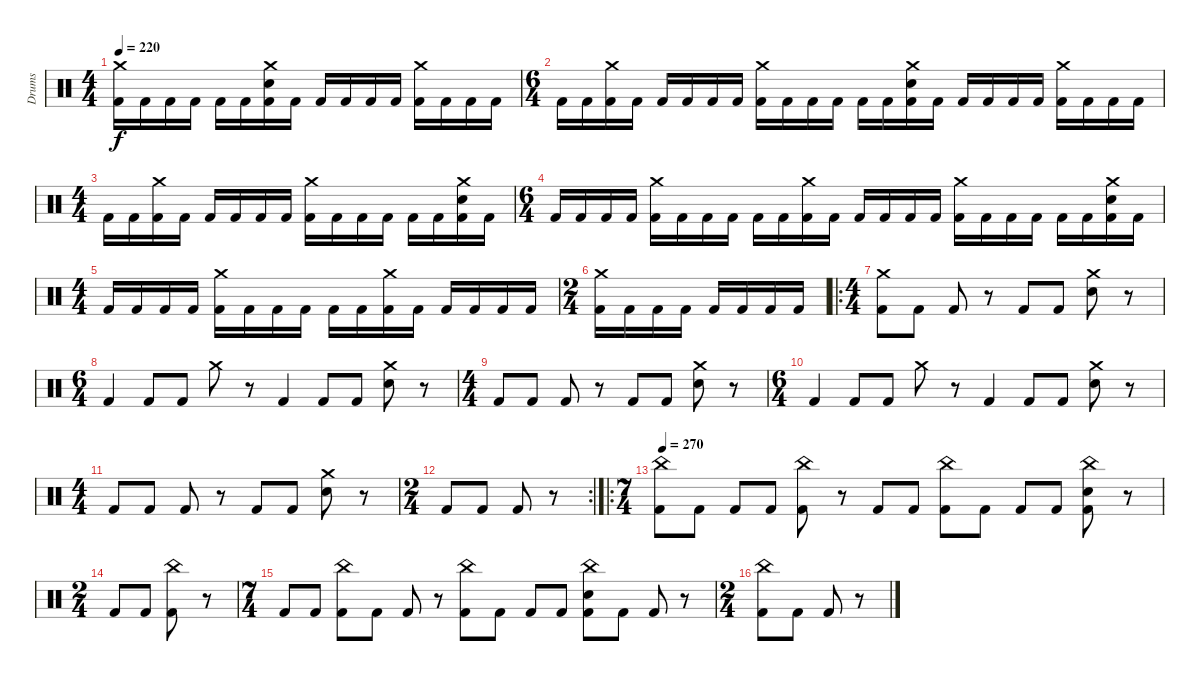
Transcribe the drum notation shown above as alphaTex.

\track ("Drums" "Drums") {instrument percussion}
\staff {score}
\articulation defaults
\ts (4 4)
\tempo 220
\clef neutral
\ks c
("Crash medium (hit)" "Kick (hit) 2").16{dy f} "Kick (hit) 2".16 "Kick (hit) 2".16 "Kick (hit) 2".16 "Kick (hit) 2".16 "Kick (hit) 2".16 ("Crash medium (hit)" "Electric Snare (hit)" "Kick (hit) 2").16 "Kick (hit) 2".16 "Kick (hit) 2".16 "Kick (hit) 2".16 "Kick (hit) 2".16 "Kick (hit) 2".16 ("Crash medium (hit)" "Kick (hit) 2").16 "Kick (hit) 2".16 "Kick (hit) 2".16 "Kick (hit) 2".16 |
\ts (6 4)
"Kick (hit) 2".16 "Kick (hit) 2".16 ("Crash medium (hit)" "Kick (hit) 2").16 "Kick (hit) 2".16 "Kick (hit) 2".16 "Kick (hit) 2".16 "Kick (hit) 2".16 "Kick (hit) 2".16 ("Crash medium (hit)" "Kick (hit) 2").16 "Kick (hit) 2".16 "Kick (hit) 2".16 "Kick (hit) 2".16 "Kick (hit) 2".16 "Kick (hit) 2".16 ("Crash medium (hit)" "Electric Snare (hit)" "Kick (hit) 2").16 "Kick (hit) 2".16 "Kick (hit) 2".16 "Kick (hit) 2".16 "Kick (hit) 2".16 "Kick (hit) 2".16 ("Crash medium (hit)" "Kick (hit) 2").16 "Kick (hit) 2".16 "Kick (hit) 2".16 "Kick (hit) 2".16 |
\ts (4 4)
"Kick (hit) 2".16 "Kick (hit) 2".16 ("Crash medium (hit)" "Kick (hit) 2").16 "Kick (hit) 2".16 "Kick (hit) 2".16 "Kick (hit) 2".16 "Kick (hit) 2".16 "Kick (hit) 2".16 ("Crash medium (hit)" "Kick (hit) 2").16 "Kick (hit) 2".16 "Kick (hit) 2".16 "Kick (hit) 2".16 "Kick (hit) 2".16 "Kick (hit) 2".16 ("Crash medium (hit)" "Electric Snare (hit)" "Kick (hit) 2").16 "Kick (hit) 2".16 |
\ts (6 4)
"Kick (hit) 2".16 "Kick (hit) 2".16 "Kick (hit) 2".16 "Kick (hit) 2".16 ("Crash medium (hit)" "Kick (hit) 2").16 "Kick (hit) 2".16 "Kick (hit) 2".16 "Kick (hit) 2".16 "Kick (hit) 2".16 "Kick (hit) 2".16 ("Crash medium (hit)" "Kick (hit) 2").16 "Kick (hit) 2".16 "Kick (hit) 2".16 "Kick (hit) 2".16 "Kick (hit) 2".16 "Kick (hit) 2".16 ("Crash medium (hit)" "Kick (hit) 2").16 "Kick (hit) 2".16 "Kick (hit) 2".16 "Kick (hit) 2".16 "Kick (hit) 2".16 "Kick (hit) 2".16 ("Crash medium (hit)" "Electric Snare (hit)" "Kick (hit) 2").16 "Kick (hit) 2".16 |
\ts (4 4)
"Kick (hit) 2".16 "Kick (hit) 2".16 "Kick (hit) 2".16 "Kick (hit) 2".16 ("Crash medium (hit)" "Kick (hit) 2").16 "Kick (hit) 2".16 "Kick (hit) 2".16 "Kick (hit) 2".16 "Kick (hit) 2".16 "Kick (hit) 2".16 ("Crash medium (hit)" "Kick (hit) 2").16 "Kick (hit) 2".16 "Kick (hit) 2".16 "Kick (hit) 2".16 "Kick (hit) 2".16 "Kick (hit) 2".16 |
\ts (2 4)
("Crash medium (hit)" "Kick (hit) 2").16 "Kick (hit) 2".16 "Kick (hit) 2".16 "Kick (hit) 2".16 "Kick (hit) 2".16 "Kick (hit) 2".16 "Kick (hit) 2".16 "Kick (hit) 2".16 |
\ro
\ts (4 4)
("Crash medium (hit)" "Kick (hit) 2").8 "Kick (hit) 2".8 "Kick (hit) 2".8 r.8 "Kick (hit) 2".8 "Kick (hit) 2".8 ("Crash medium (hit)" "Electric Snare (hit)").8 r.8 |
\ts (6 4)
"Kick (hit) 2".4 "Kick (hit) 2".8 "Kick (hit) 2".8 "Crash medium (hit)".8 r.8 "Kick (hit) 2".4 "Kick (hit) 2".8 "Kick (hit) 2".8 ("Crash medium (hit)" "Electric Snare (hit)").8 r.8 |
\ts (4 4)
"Kick (hit) 2".8 "Kick (hit) 2".8 "Kick (hit) 2".8 r.8 "Kick (hit) 2".8 "Kick (hit) 2".8 ("Crash medium (hit)" "Electric Snare (hit)").8 r.8 |
\ts (6 4)
"Kick (hit) 2".4 "Kick (hit) 2".8 "Kick (hit) 2".8 "Crash medium (hit)".8 r.8 "Kick (hit) 2".4 "Kick (hit) 2".8 "Kick (hit) 2".8 ("Crash medium (hit)" "Electric Snare (hit)").8 r.8 |
\ts (4 4)
"Kick (hit) 2".8 "Kick (hit) 2".8 "Kick (hit) 2".8 r.8 "Kick (hit) 2".8 "Kick (hit) 2".8 ("Crash medium (hit)" "Electric Snare (hit)").8 r.8 |
\rc 2
\ts (2 4)
"Kick (hit) 2".8 "Kick (hit) 2".8 "Kick (hit) 2".8 r.8 |
\ro
\ts (7 4)
\tempo 270
("China (hit)" "Kick (hit) 2").8 "Kick (hit) 2".8 "Kick (hit) 2".8 "Kick (hit) 2".8 ("China (hit)" "Kick (hit) 2").8 r.8 "Kick (hit) 2".8 "Kick (hit) 2".8 ("China (hit)" "Kick (hit) 2").8 "Kick (hit) 2".8 "Kick (hit) 2".8 "Kick (hit) 2".8 ("China (hit)" "Electric Snare (hit)" "Kick (hit) 2").8 r.8 |
\ts (2 4)
"Kick (hit) 2".8 "Kick (hit) 2".8 ("China (hit)" "Kick (hit) 2").8 r.8 |
\ts (7 4)
"Kick (hit) 2".8 "Kick (hit) 2".8 ("China (hit)" "Kick (hit) 2").8 "Kick (hit) 2".8 "Kick (hit) 2".8 r.8 ("China (hit)" "Kick (hit) 2").8 "Kick (hit) 2".8 "Kick (hit) 2".8 "Kick (hit) 2".8 ("China (hit)" "Electric Snare (hit)" "Kick (hit) 2").8 "Kick (hit) 2".8 "Kick (hit) 2".8 r.8 |
\ts (2 4)
("China (hit)" "Kick (hit) 2").8 "Kick (hit) 2".8 "Kick (hit) 2".8 r.8
